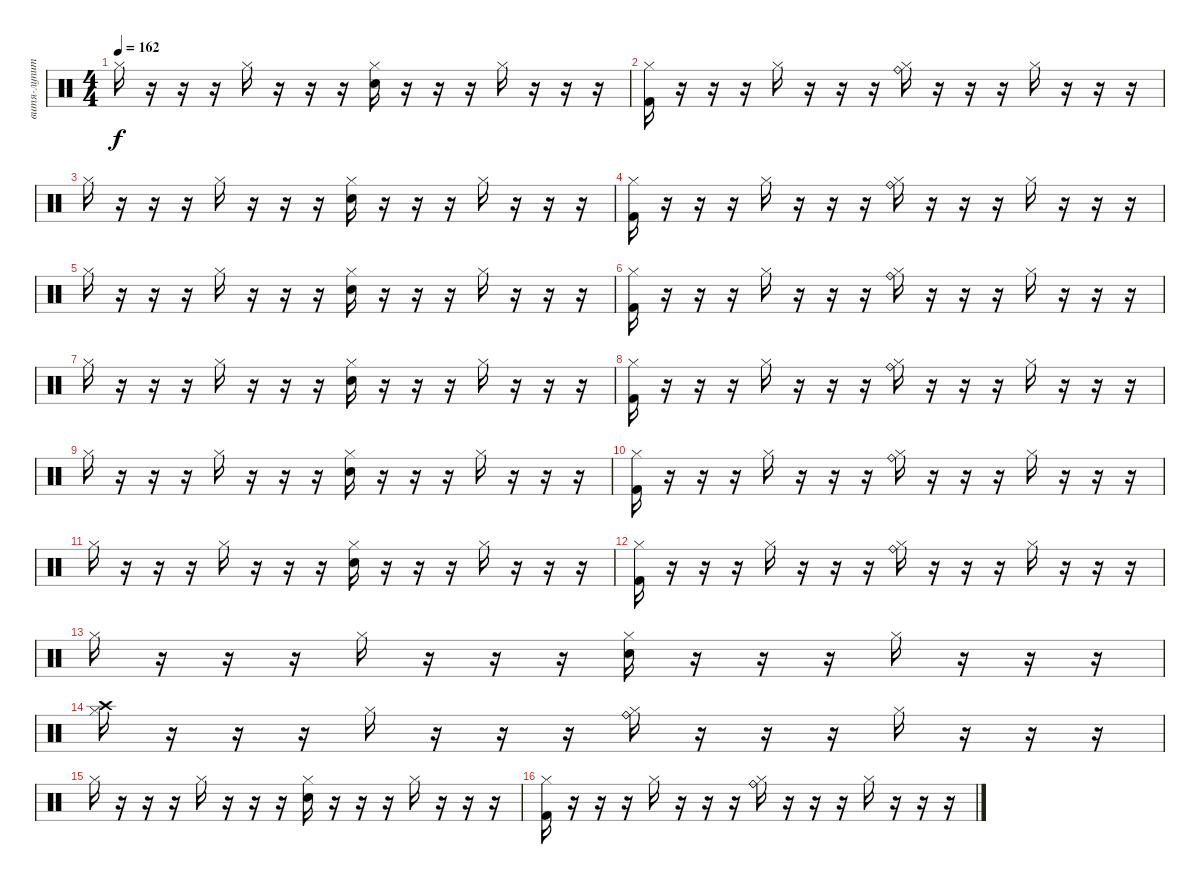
\track ("витя-лупит" "витя-лупит") {instrument percussion}
\staff {score}
\articulation defaults
\ts (4 4)
\tempo 162
\clef neutral
\ks c "Hi-Hat (closed)".16{dy f}
r.16 r.16 r.16 "Hi-Hat (closed)".16 r.16 r.16 r.16 ("Snare (hit) 2" "Hi-Hat (closed)").16 r.16 r.16 r.16 "Hi-Hat (closed)".16 r.16 r.16 r.16 |
("Kick (hit) 2" "Hi-Hat (closed)").16 r.16 r.16 r.16 "Hi-Hat (closed)".16 r.16 r.16 r.16 ("Ride (bell)" "Hi-Hat (closed)").16 r.16 r.16 r.16 "Hi-Hat (closed)".16 r.16 r.16 r.16 |
"Hi-Hat (closed)".16 r.16 r.16 r.16 "Hi-Hat (closed)".16 r.16 r.16 r.16 ("Snare (hit) 2" "Hi-Hat (closed)").16 r.16 r.16 r.16 "Hi-Hat (closed)".16 r.16 r.16 r.16 |
("Kick (hit) 2" "Hi-Hat (closed)").16 r.16 r.16 r.16 "Hi-Hat (closed)".16 r.16 r.16 r.16 ("Ride (bell)" "Hi-Hat (closed)").16 r.16 r.16 r.16 "Hi-Hat (closed)".16 r.16 r.16 r.16 |
"Hi-Hat (closed)".16 r.16 r.16 r.16 "Hi-Hat (closed)".16 r.16 r.16 r.16 ("Snare (hit) 2" "Hi-Hat (closed)").16 r.16 r.16 r.16 "Hi-Hat (closed)".16 r.16 r.16 r.16 |
("Kick (hit) 2" "Hi-Hat (closed)").16 r.16 r.16 r.16 "Hi-Hat (closed)".16 r.16 r.16 r.16 ("Ride (bell)" "Hi-Hat (closed)").16 r.16 r.16 r.16 "Hi-Hat (closed)".16 r.16 r.16 r.16 |
"Hi-Hat (closed)".16 r.16 r.16 r.16 "Hi-Hat (closed)".16 r.16 r.16 r.16 ("Snare (hit) 2" "Hi-Hat (closed)").16 r.16 r.16 r.16 "Hi-Hat (closed)".16 r.16 r.16 r.16 |
("Kick (hit) 2" "Hi-Hat (closed)").16 r.16 r.16 r.16 "Hi-Hat (closed)".16 r.16 r.16 r.16 ("Ride (bell)" "Hi-Hat (closed)").16 r.16 r.16 r.16 "Hi-Hat (closed)".16 r.16 r.16 r.16 |
"Hi-Hat (closed)".16 r.16 r.16 r.16 "Hi-Hat (closed)".16 r.16 r.16 r.16 ("Snare (hit) 2" "Hi-Hat (closed)").16 r.16 r.16 r.16 "Hi-Hat (closed)".16 r.16 r.16 r.16 |
("Kick (hit) 2" "Hi-Hat (closed)").16 r.16 r.16 r.16 "Hi-Hat (closed)".16 r.16 r.16 r.16 ("Ride (bell)" "Hi-Hat (closed)").16 r.16 r.16 r.16 "Hi-Hat (closed)".16 r.16 r.16 r.16 |
"Hi-Hat (closed)".16 r.16 r.16 r.16 "Hi-Hat (closed)".16 r.16 r.16 r.16 ("Snare (hit) 2" "Hi-Hat (closed)").16 r.16 r.16 r.16 "Hi-Hat (closed)".16 r.16 r.16 r.16 |
("Kick (hit) 2" "Hi-Hat (closed)").16 r.16 r.16 r.16 "Hi-Hat (closed)".16 r.16 r.16 r.16 ("Ride (bell)" "Hi-Hat (closed)").16 r.16 r.16 r.16 "Hi-Hat (closed)".16 r.16 r.16 r.16 |
"Hi-Hat (closed)".16 r.16 r.16 r.16 "Hi-Hat (closed)".16 r.16 r.16 r.16 ("Snare (hit) 2" "Hi-Hat (closed)").16 r.16 r.16 r.16 "Hi-Hat (closed)".16 r.16 r.16 r.16 |
("Crash high (hit)" "Hi-Hat (closed)").16 r.16 r.16 r.16 "Hi-Hat (closed)".16 r.16 r.16 r.16 ("Ride (bell)" "Hi-Hat (closed)").16 r.16 r.16 r.16 "Hi-Hat (closed)".16 r.16 r.16 r.16 |
"Hi-Hat (closed)".16 r.16 r.16 r.16 "Hi-Hat (closed)".16 r.16 r.16 r.16 ("Snare (hit) 2" "Hi-Hat (closed)").16 r.16 r.16 r.16 "Hi-Hat (closed)".16 r.16 r.16 r.16 |
("Kick (hit) 2" "Hi-Hat (closed)").16 r.16 r.16 r.16 "Hi-Hat (closed)".16 r.16 r.16 r.16 ("Ride (bell)" "Hi-Hat (closed)").16 r.16 r.16 r.16 "Hi-Hat (closed)".16 r.16 r.16 r.16
